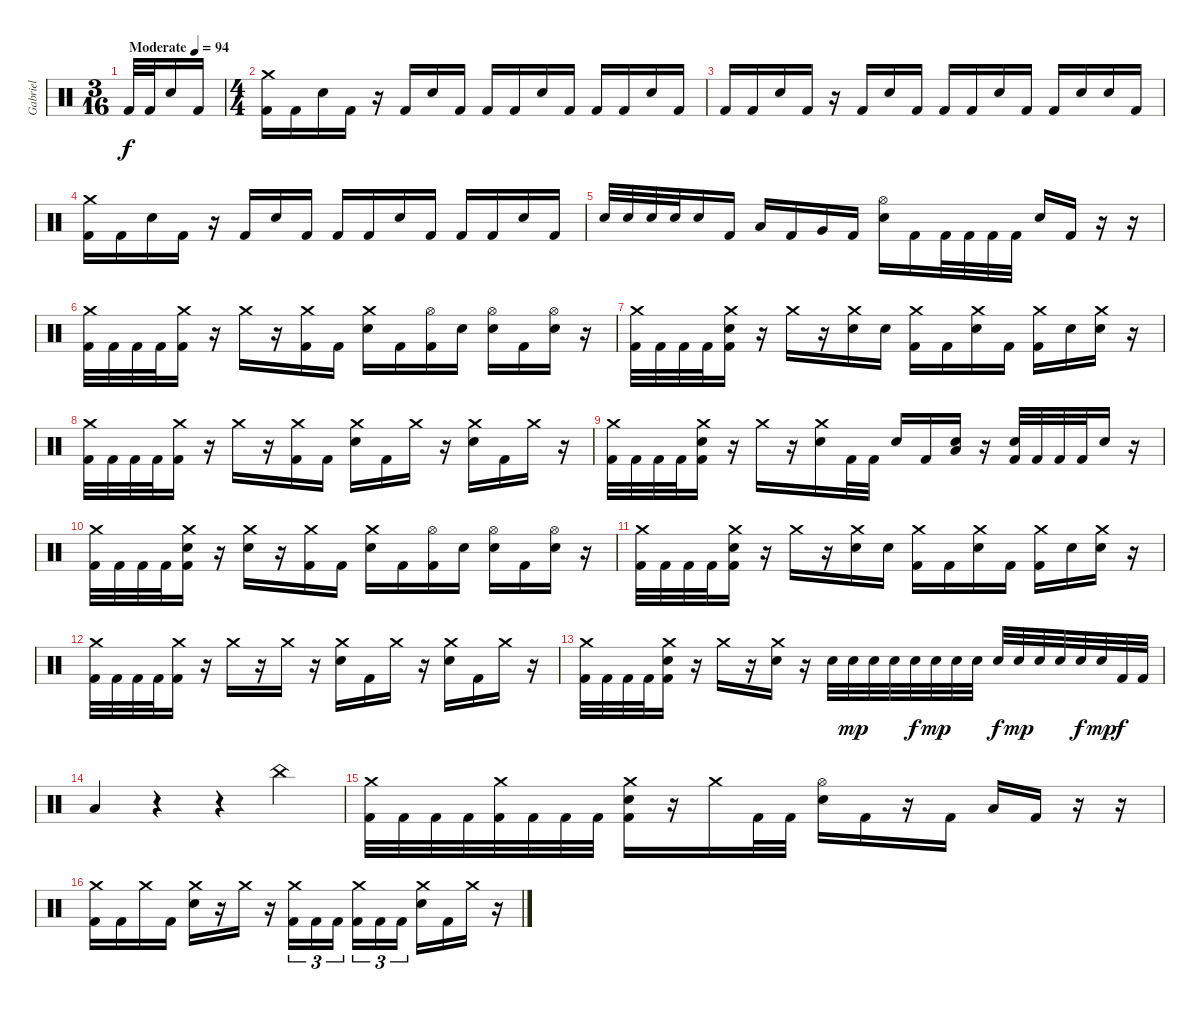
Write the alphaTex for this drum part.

\track ("Gabriel" "Gabriel") {instrument percussion}
\staff {score}
\articulation defaults
\ts (3 16)
\tempo (94 "Moderate")
\clef neutral
\ks c "Kick (hit) 2".32{dy f} "Kick (hit) 2".32 "Electric Snare (hit)".16 "Kick (hit) 2".16
|
\ts (4 4)
("Crash medium (hit)" "Kick (hit) 2").16 "Kick (hit) 2".16 "Electric Snare (hit)".16 "Kick (hit) 2".16 r.16 "Kick (hit) 2".16 "Electric Snare (hit)".16 "Kick (hit) 2".16 "Kick (hit) 2".16 "Kick (hit) 2".16 "Electric Snare (hit)".16 "Kick (hit) 2".16 "Kick (hit) 2".16 "Kick (hit) 2".16 "Electric Snare (hit)".16 "Kick (hit) 2".16 |
"Kick (hit) 2".16 "Kick (hit) 2".16 "Electric Snare (hit)".16 "Kick (hit) 2".16 r.16 "Kick (hit) 2".16 "Electric Snare (hit)".16 "Kick (hit) 2".16 "Kick (hit) 2".16 "Kick (hit) 2".16 "Electric Snare (hit)".16 "Kick (hit) 2".16 "Kick (hit) 2".16 "Electric Snare (hit)".16 "Electric Snare (hit)".16 "Kick (hit) 2".16 |
("Crash medium (hit)" "Kick (hit) 2").16 "Kick (hit) 2".16 "Electric Snare (hit)".16 "Kick (hit) 2".16 r.16 "Kick (hit) 2".16 "Electric Snare (hit)".16 "Kick (hit) 2".16 "Kick (hit) 2".16 "Kick (hit) 2".16 "Electric Snare (hit)".16 "Kick (hit) 2".16 "Kick (hit) 2".16 "Kick (hit) 2".16 "Electric Snare (hit)".16 "Kick (hit) 2".16 |
"Electric Snare (hit)".32 "Electric Snare (hit)".32 "Electric Snare (hit)".32 "Electric Snare (hit)".32 "Electric Snare (hit)".16 "Kick (hit) 2".16 "Low Tom (hit)".16 "Kick (hit) 2".16 "Very Low Tom (hit)".16 "Kick (hit) 2".16 ("Hi-Hat (open)" "Electric Snare (hit)").16 "Kick (hit) 2".16 "Kick (hit) 2".32 "Kick (hit) 2".32 "Kick (hit) 2".32 "Kick (hit) 2".32 "Electric Snare (hit)".16 "Kick (hit) 2".16 r.16 r.16 |
("Crash medium (hit)" "Kick (hit) 2").32 "Kick (hit) 2".32 "Kick (hit) 2".32 "Kick (hit) 2".32 ("Crash medium (hit)" "Kick (hit) 2").16 r.16 "Crash medium (hit)".16 r.16 ("Crash medium (hit)" "Kick (hit) 2").16 "Kick (hit) 2".16 ("Crash medium (hit)" "Electric Snare (hit)").16 "Kick (hit) 2".16 ("Hi-Hat (open)" "Kick (hit) 2").16 "Electric Snare (hit)".16 ("Hi-Hat (open)" "Electric Snare (hit)").16 "Kick (hit) 2".16 ("Hi-Hat (open)" "Electric Snare (hit)").16 r.16 |
("Crash medium (hit)" "Kick (hit) 2").32 "Kick (hit) 2".32 "Kick (hit) 2".32 "Kick (hit) 2".32 ("Crash medium (hit)" "Electric Snare (hit)" "Kick (hit) 2").16 r.16 "Crash medium (hit)".16 r.16 ("Crash medium (hit)" "Electric Snare (hit)").16 "Electric Snare (hit)".16 ("Crash medium (hit)" "Kick (hit) 2").16 "Kick (hit) 2".16 ("Crash medium (hit)" "Electric Snare (hit)").16 "Kick (hit) 2".16 ("Crash medium (hit)" "Kick (hit) 2").16 "Electric Snare (hit)".16 ("Crash medium (hit)" "Electric Snare (hit)").16 r.16 |
("Crash medium (hit)" "Kick (hit) 2").32 "Kick (hit) 2".32 "Kick (hit) 2".32 "Kick (hit) 2".32 ("Crash medium (hit)" "Kick (hit) 2").16 r.16 "Crash medium (hit)".16 r.16 ("Crash medium (hit)" "Kick (hit) 2").16 "Kick (hit) 2".16 ("Crash medium (hit)" "Electric Snare (hit)").16 "Kick (hit) 2".16 "Crash medium (hit)".16 r.16 ("Crash medium (hit)" "Electric Snare (hit)").16 "Kick (hit) 2".16 "Crash medium (hit)".16 r.16 |
("Crash medium (hit)" "Kick (hit) 2").32 "Kick (hit) 2".32 "Kick (hit) 2".32 "Kick (hit) 2".32 ("Crash medium (hit)" "Electric Snare (hit)" "Kick (hit) 2").16 r.16 "Crash medium (hit)".16 r.16 ("Crash medium (hit)" "Electric Snare (hit)").16 "Kick (hit) 2".32 "Kick (hit) 2".32 "Electric Snare (hit)".16 "Kick (hit) 2".16 ("Electric Snare (hit)" "Low Tom (hit)").16 r.16 ("Electric Snare (hit)" "Kick (hit) 2").32 "Kick (hit) 2".32 "Kick (hit) 2".32 "Kick (hit) 2".32 "Electric Snare (hit)".16 r.16 |
("Crash medium (hit)" "Kick (hit) 2").32 "Kick (hit) 2".32 "Kick (hit) 2".32 "Kick (hit) 2".32 ("Crash medium (hit)" "Electric Snare (hit)" "Kick (hit) 2").16 r.16 ("Crash medium (hit)" "Electric Snare (hit)").16 r.16 ("Crash medium (hit)" "Kick (hit) 2").16 "Kick (hit) 2".16 ("Crash medium (hit)" "Electric Snare (hit)").16 "Kick (hit) 2".16 ("Hi-Hat (open)" "Kick (hit) 2").16 "Electric Snare (hit)".16 ("Hi-Hat (open)" "Electric Snare (hit)").16 "Kick (hit) 2".16 ("Hi-Hat (open)" "Electric Snare (hit)").16 r.16 |
("Crash medium (hit)" "Kick (hit) 2").32 "Kick (hit) 2".32 "Kick (hit) 2".32 "Kick (hit) 2".32 ("Crash medium (hit)" "Electric Snare (hit)" "Kick (hit) 2").16 r.16 "Crash medium (hit)".16 r.16 ("Crash medium (hit)" "Electric Snare (hit)").16 "Electric Snare (hit)".16 ("Crash medium (hit)" "Kick (hit) 2").16 "Kick (hit) 2".16 ("Crash medium (hit)" "Electric Snare (hit)").16 "Kick (hit) 2".16 ("Crash medium (hit)" "Kick (hit) 2").16 "Electric Snare (hit)".16 ("Crash medium (hit)" "Electric Snare (hit)").16 r.16 |
("Crash medium (hit)" "Kick (hit) 2").32 "Kick (hit) 2".32 "Kick (hit) 2".32 "Kick (hit) 2".32 ("Crash medium (hit)" "Kick (hit) 2").16 r.16 "Crash medium (hit)".16 r.16 "Crash medium (hit)".16 r.16 ("Crash medium (hit)" "Electric Snare (hit)").16 "Kick (hit) 2".16 "Crash medium (hit)".16 r.16 ("Crash medium (hit)" "Electric Snare (hit)").16 "Kick (hit) 2".16 "Crash medium (hit)".16 r.16 |
("Crash medium (hit)" "Kick (hit) 2").32 "Kick (hit) 2".32 "Kick (hit) 2".32 "Kick (hit) 2".32 ("Crash medium (hit)" "Electric Snare (hit)" "Kick (hit) 2").16 r.16 "Crash medium (hit)".16 r.16 ("Crash medium (hit)" "Electric Snare (hit)").16 r.16 "Electric Snare (hit)".32 "Electric Snare (hit)".32{dy mp} "Electric Snare (hit)".32 "Electric Snare (hit)".32 "Electric Snare (hit)".32{dy f} "Electric Snare (hit)".32{dy mp} "Electric Snare (hit)".32 "Electric Snare (hit)".32 "Electric Snare (hit)".32{dy f} "Electric Snare (hit)".32{dy mp} "Electric Snare (hit)".32 "Electric Snare (hit)".32 "Electric Snare (hit)".32{dy f} "Electric Snare (hit)".32{dy mp} "Kick (hit) 2".32{dy f} "Kick (hit) 2".32 |
"Low Tom (hit)".4 r.4 r.4 "China (hit)".4 |
("Crash medium (hit)" "Kick (hit) 2").32 "Kick (hit) 2".32 "Kick (hit) 2".32 "Kick (hit) 2".32 ("Crash medium (hit)" "Kick (hit) 2").32 "Kick (hit) 2".32 "Kick (hit) 2".32 "Kick (hit) 2".32 ("Crash medium (hit)" "Electric Snare (hit)" "Kick (hit) 2").16 r.16 "Crash medium (hit)".16 "Kick (hit) 2".32 "Kick (hit) 2".32 ("Hi-Hat (open)" "Electric Snare (hit)").16 "Kick (hit) 2".16 r.16 "Kick (hit) 2".16 "Low Tom (hit)".16 "Kick (hit) 2".16 r.16 r.16 |
("Crash medium (hit)" "Kick (hit) 2").16 "Kick (hit) 2".16 "Crash medium (hit)".16 "Kick (hit) 2".16 ("Crash medium (hit)" "Electric Snare (hit)").16 r.16 "Crash medium (hit)".16 r.16 ("Crash medium (hit)" "Kick (hit) 2").16{tu (3 2)} "Kick (hit) 2".16{tu (3 2)} "Kick (hit) 2".16{tu (3 2) beam splitsecondary} ("Crash medium (hit)" "Kick (hit) 2").16{tu (3 2)} "Kick (hit) 2".16{tu (3 2)} "Kick (hit) 2".16{tu (3 2)} ("Crash medium (hit)" "Electric Snare (hit)").16 "Kick (hit) 2".16 "Crash medium (hit)".16 r.16
